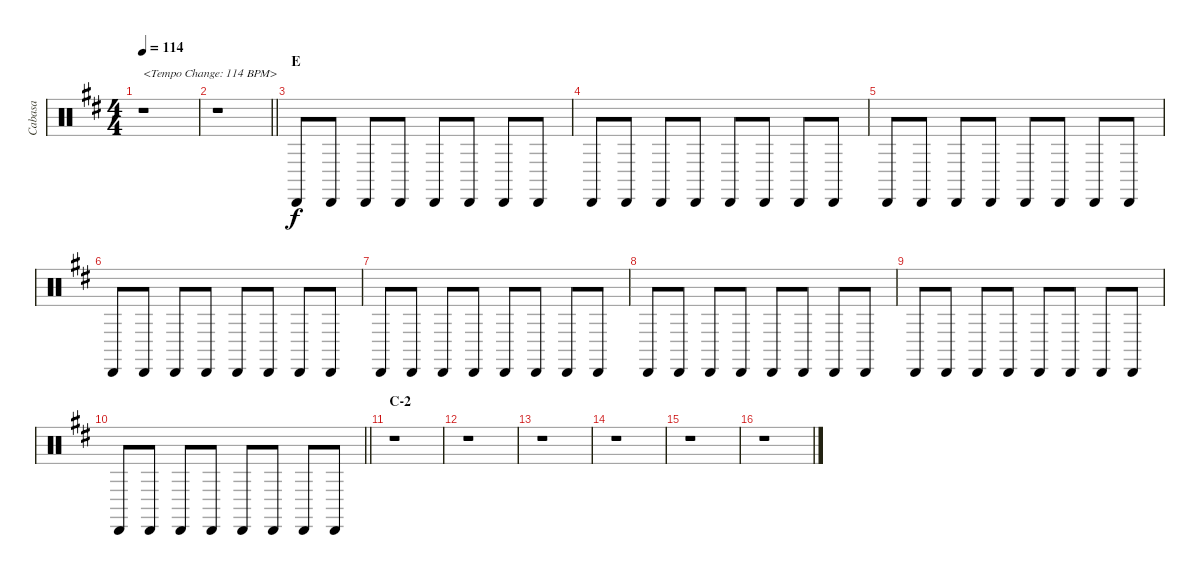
\track ("Cabasa" "Cabasa") {instrument percussion}
\staff {score}
\articulation defaults
\ts (4 4)
\tempo 114
\clef neutral
\ks d
r.1{txt "<Tempo Change: 114 BPM>" dy f} |
\barLineRight lightlight
r.1 |
\section ("" "E")
"Cabasa (hit)".8 "Cabasa (hit)".8 "Cabasa (hit)".8 "Cabasa (hit)".8 "Cabasa (hit)".8 "Cabasa (hit)".8 "Cabasa (hit)".8 "Cabasa (hit)".8 |
"Cabasa (hit)".8 "Cabasa (hit)".8 "Cabasa (hit)".8 "Cabasa (hit)".8 "Cabasa (hit)".8 "Cabasa (hit)".8 "Cabasa (hit)".8 "Cabasa (hit)".8 |
"Cabasa (hit)".8 "Cabasa (hit)".8 "Cabasa (hit)".8 "Cabasa (hit)".8 "Cabasa (hit)".8 "Cabasa (hit)".8 "Cabasa (hit)".8 "Cabasa (hit)".8 |
"Cabasa (hit)".8 "Cabasa (hit)".8 "Cabasa (hit)".8 "Cabasa (hit)".8 "Cabasa (hit)".8 "Cabasa (hit)".8 "Cabasa (hit)".8 "Cabasa (hit)".8 |
"Cabasa (hit)".8 "Cabasa (hit)".8 "Cabasa (hit)".8 "Cabasa (hit)".8 "Cabasa (hit)".8 "Cabasa (hit)".8 "Cabasa (hit)".8 "Cabasa (hit)".8 |
"Cabasa (hit)".8 "Cabasa (hit)".8 "Cabasa (hit)".8 "Cabasa (hit)".8 "Cabasa (hit)".8 "Cabasa (hit)".8 "Cabasa (hit)".8 "Cabasa (hit)".8 |
"Cabasa (hit)".8 "Cabasa (hit)".8 "Cabasa (hit)".8 "Cabasa (hit)".8 "Cabasa (hit)".8 "Cabasa (hit)".8 "Cabasa (hit)".8 "Cabasa (hit)".8 |
\barLineRight lightlight "Cabasa (hit)".8 "Cabasa (hit)".8 "Cabasa (hit)".8 "Cabasa (hit)".8 "Cabasa (hit)".8 "Cabasa (hit)".8 "Cabasa (hit)".8 "Cabasa (hit)".8
|
\section ("" "C-2")
r.1 |
r.1 |
r.1 |
r.1 |
r.1 |
r.1
